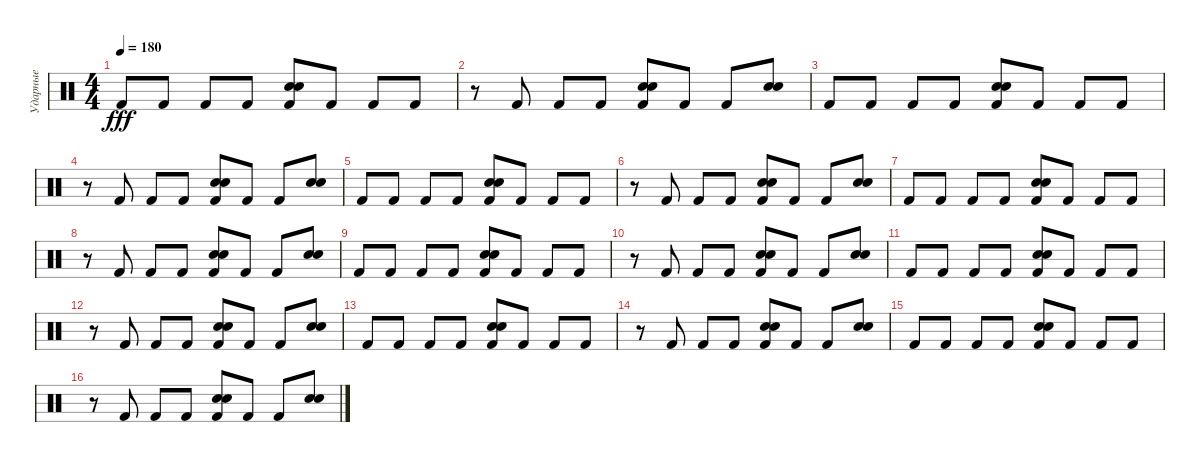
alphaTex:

\track ("Ударные" "Ударные") {instrument percussion}
\staff {score}
\articulation defaults
\ts (4 4)
\tempo 180
\clef neutral
\ks c "Kick (hit) 2".8{dy fff} "Kick (hit) 2".8 "Kick (hit) 2".8 "Kick (hit) 2".8
("Electric Snare (hit)" "Snare (hit) 2" "Kick (hit) 2").8 "Kick (hit) 2".8 "Kick (hit) 2".8 "Kick (hit) 2".8 |
r.8 "Kick (hit) 2".8 "Kick (hit) 2".8 "Kick (hit) 2".8 ("Electric Snare (hit)" "Snare (hit) 2" "Kick (hit) 2").8 "Kick (hit) 2".8 "Kick (hit) 2".8 ("Electric Snare (hit)" "Snare (hit) 2").8 |
"Kick (hit) 2".8 "Kick (hit) 2".8 "Kick (hit) 2".8 "Kick (hit) 2".8 ("Electric Snare (hit)" "Snare (hit) 2" "Kick (hit) 2").8 "Kick (hit) 2".8 "Kick (hit) 2".8 "Kick (hit) 2".8 |
r.8 "Kick (hit) 2".8 "Kick (hit) 2".8 "Kick (hit) 2".8 ("Electric Snare (hit)" "Snare (hit) 2" "Kick (hit) 2").8 "Kick (hit) 2".8 "Kick (hit) 2".8 ("Electric Snare (hit)" "Snare (hit) 2").8 |
"Kick (hit) 2".8 "Kick (hit) 2".8 "Kick (hit) 2".8 "Kick (hit) 2".8 ("Electric Snare (hit)" "Snare (hit) 2" "Kick (hit) 2").8 "Kick (hit) 2".8 "Kick (hit) 2".8 "Kick (hit) 2".8 |
r.8 "Kick (hit) 2".8 "Kick (hit) 2".8 "Kick (hit) 2".8 ("Electric Snare (hit)" "Snare (hit) 2" "Kick (hit) 2").8 "Kick (hit) 2".8 "Kick (hit) 2".8 ("Electric Snare (hit)" "Snare (hit) 2").8 |
"Kick (hit) 2".8 "Kick (hit) 2".8 "Kick (hit) 2".8 "Kick (hit) 2".8 ("Electric Snare (hit)" "Snare (hit) 2" "Kick (hit) 2").8 "Kick (hit) 2".8 "Kick (hit) 2".8 "Kick (hit) 2".8 |
r.8 "Kick (hit) 2".8 "Kick (hit) 2".8 "Kick (hit) 2".8 ("Electric Snare (hit)" "Snare (hit) 2" "Kick (hit) 2").8 "Kick (hit) 2".8 "Kick (hit) 2".8 ("Electric Snare (hit)" "Snare (hit) 2").8 |
"Kick (hit) 2".8 "Kick (hit) 2".8 "Kick (hit) 2".8 "Kick (hit) 2".8 ("Electric Snare (hit)" "Snare (hit) 2" "Kick (hit) 2").8 "Kick (hit) 2".8 "Kick (hit) 2".8 "Kick (hit) 2".8 |
r.8 "Kick (hit) 2".8 "Kick (hit) 2".8 "Kick (hit) 2".8 ("Electric Snare (hit)" "Snare (hit) 2" "Kick (hit) 2").8 "Kick (hit) 2".8 "Kick (hit) 2".8 ("Electric Snare (hit)" "Snare (hit) 2").8 |
"Kick (hit) 2".8 "Kick (hit) 2".8 "Kick (hit) 2".8 "Kick (hit) 2".8 ("Electric Snare (hit)" "Snare (hit) 2" "Kick (hit) 2").8 "Kick (hit) 2".8 "Kick (hit) 2".8 "Kick (hit) 2".8 |
r.8 "Kick (hit) 2".8 "Kick (hit) 2".8 "Kick (hit) 2".8 ("Electric Snare (hit)" "Snare (hit) 2" "Kick (hit) 2").8 "Kick (hit) 2".8 "Kick (hit) 2".8 ("Electric Snare (hit)" "Snare (hit) 2").8 |
"Kick (hit) 2".8 "Kick (hit) 2".8 "Kick (hit) 2".8 "Kick (hit) 2".8 ("Electric Snare (hit)" "Snare (hit) 2" "Kick (hit) 2").8 "Kick (hit) 2".8 "Kick (hit) 2".8 "Kick (hit) 2".8 |
r.8 "Kick (hit) 2".8 "Kick (hit) 2".8 "Kick (hit) 2".8 ("Electric Snare (hit)" "Snare (hit) 2" "Kick (hit) 2").8 "Kick (hit) 2".8 "Kick (hit) 2".8 ("Electric Snare (hit)" "Snare (hit) 2").8 |
"Kick (hit) 2".8 "Kick (hit) 2".8 "Kick (hit) 2".8 "Kick (hit) 2".8 ("Electric Snare (hit)" "Snare (hit) 2" "Kick (hit) 2").8 "Kick (hit) 2".8 "Kick (hit) 2".8 "Kick (hit) 2".8 |
r.8 "Kick (hit) 2".8 "Kick (hit) 2".8 "Kick (hit) 2".8 ("Electric Snare (hit)" "Snare (hit) 2" "Kick (hit) 2").8 "Kick (hit) 2".8 "Kick (hit) 2".8 ("Electric Snare (hit)" "Snare (hit) 2").8
